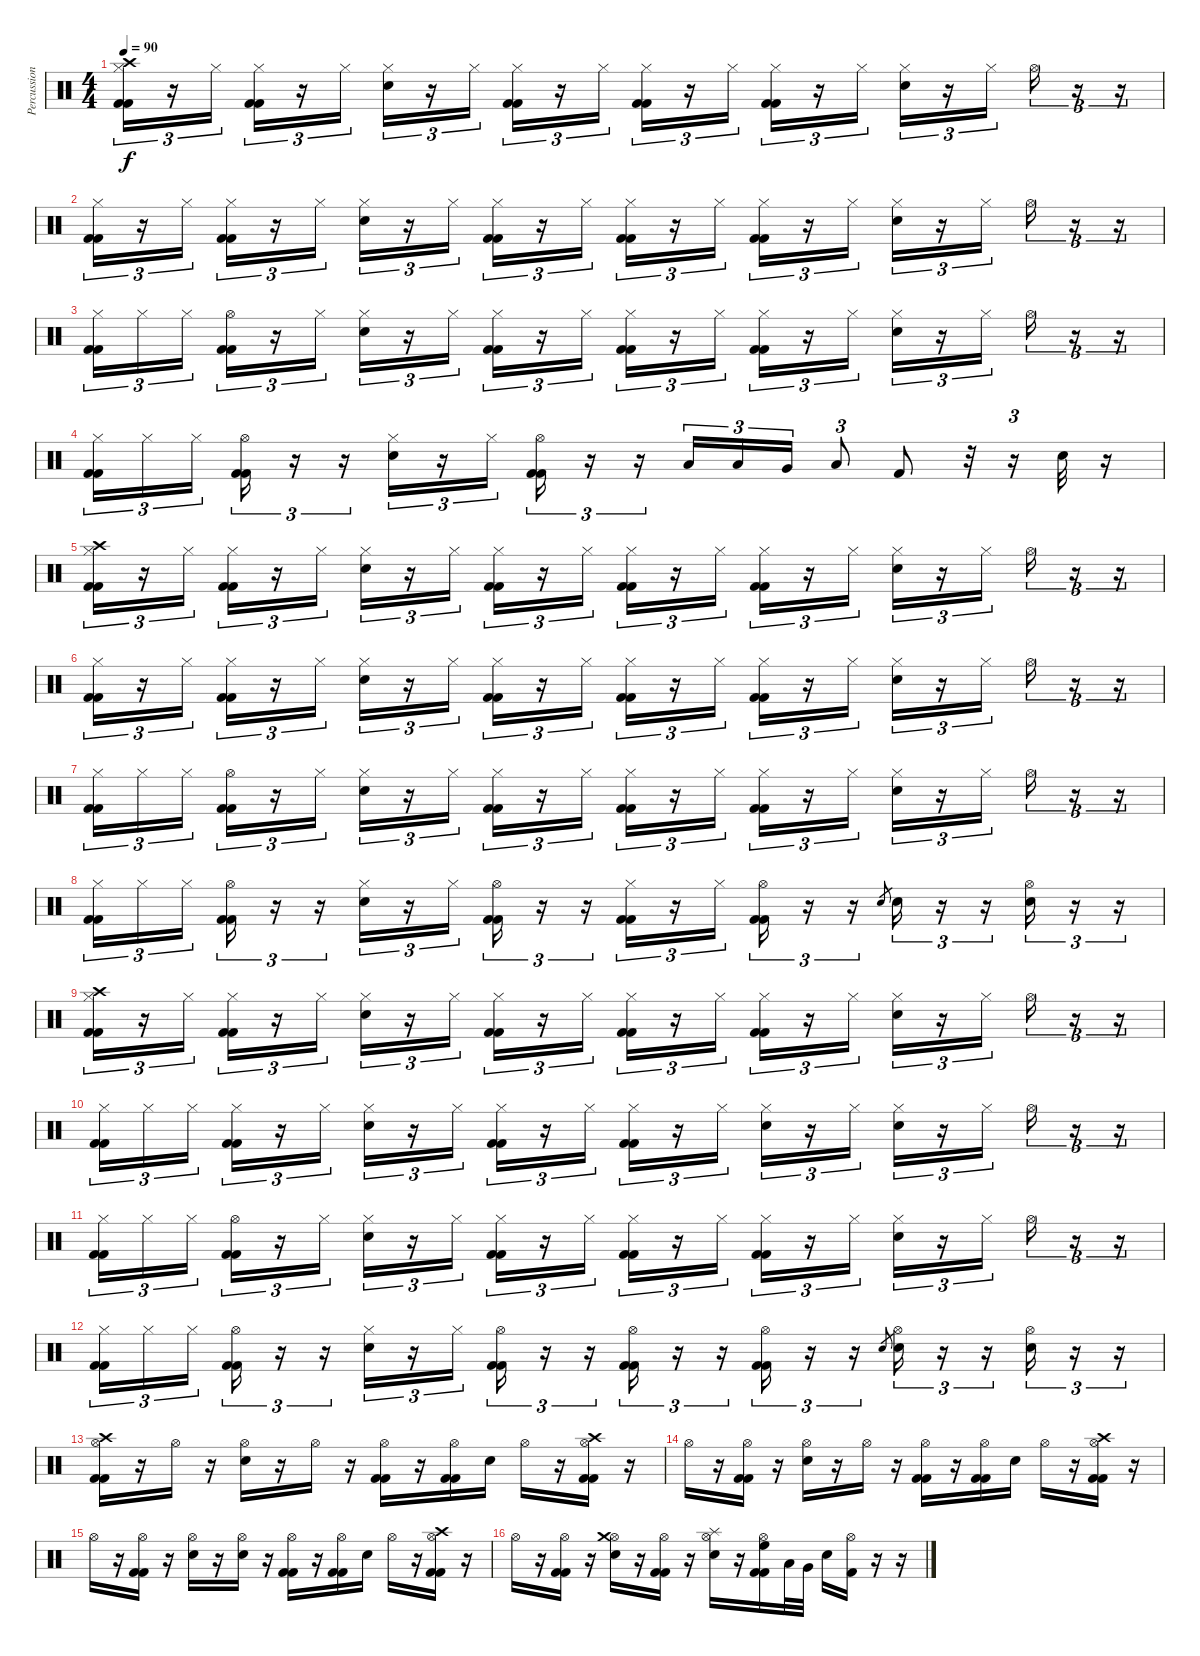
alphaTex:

\track ("Percussion" "Percussion") {instrument percussion}
\staff {score}
\articulation defaults
\ts (4 4)
\tempo 90
\clef neutral
\ks c
("Hi-Hat (closed)" "Crash high (hit)" "Kick (hit) 2" "Kick (hit) 2").16{tu (3 2) dy f} r.16{tu (3 2)} "Hi-Hat (closed)".16{tu (3 2)} ("Hi-Hat (closed)" "Kick (hit) 2" "Kick (hit) 2").16{tu (3 2)} r.16{tu (3 2)} "Hi-Hat (closed)".16{tu (3 2)} ("Hi-Hat (closed)" "Electric Snare (hit)").16{tu (3 2)} r.16{tu (3 2)} "Hi-Hat (closed)".16{tu (3 2)} ("Hi-Hat (closed)" "Kick (hit) 2" "Kick (hit) 2").16{tu (3 2)} r.16{tu (3 2)} "Hi-Hat (closed)".16{tu (3 2)} ("Hi-Hat (closed)" "Kick (hit) 2" "Kick (hit) 2").16{tu (3 2)} r.16{tu (3 2)} "Hi-Hat (closed)".16{tu (3 2)} ("Hi-Hat (closed)" "Kick (hit) 2" "Kick (hit) 2").16{tu (3 2)} r.16{tu (3 2)} "Hi-Hat (closed)".16{tu (3 2)} ("Hi-Hat (closed)" "Electric Snare (hit)").16{tu (3 2)} r.16{tu (3 2)} "Hi-Hat (closed)".16{tu (3 2)} "Hi-Hat (open)".16{tu (3 2)} r.16{tu (3 2)} r.16{tu (3 2)} |
("Hi-Hat (closed)" "Kick (hit) 2" "Kick (hit) 2").16{tu (3 2)} r.16{tu (3 2)} "Hi-Hat (closed)".16{tu (3 2)} ("Hi-Hat (closed)" "Kick (hit) 2" "Kick (hit) 2").16{tu (3 2)} r.16{tu (3 2)} "Hi-Hat (closed)".16{tu (3 2)} ("Hi-Hat (closed)" "Electric Snare (hit)").16{tu (3 2)} r.16{tu (3 2)} "Hi-Hat (closed)".16{tu (3 2)} ("Hi-Hat (closed)" "Kick (hit) 2" "Kick (hit) 2").16{tu (3 2)} r.16{tu (3 2)} "Hi-Hat (closed)".16{tu (3 2)} ("Hi-Hat (closed)" "Kick (hit) 2" "Kick (hit) 2").16{tu (3 2)} r.16{tu (3 2)} "Hi-Hat (closed)".16{tu (3 2)} ("Hi-Hat (closed)" "Kick (hit) 2" "Kick (hit) 2").16{tu (3 2)} r.16{tu (3 2)} "Hi-Hat (closed)".16{tu (3 2)} ("Hi-Hat (closed)" "Electric Snare (hit)").16{tu (3 2)} r.16{tu (3 2)} "Hi-Hat (closed)".16{tu (3 2)} "Hi-Hat (open)".16{tu (3 2)} r.16{tu (3 2)} r.16{tu (3 2)} |
("Hi-Hat (closed)" "Kick (hit) 2" "Kick (hit) 2").16{tu (3 2)} "Hi-Hat (closed)".16{tu (3 2)} "Hi-Hat (closed)".16{tu (3 2)} ("Hi-Hat (open)" "Kick (hit) 2" "Kick (hit) 2").16{tu (3 2)} r.16{tu (3 2)} "Hi-Hat (closed)".16{tu (3 2)} ("Hi-Hat (closed)" "Electric Snare (hit)").16{tu (3 2)} r.16{tu (3 2)} "Hi-Hat (closed)".16{tu (3 2)} ("Hi-Hat (closed)" "Kick (hit) 2" "Kick (hit) 2").16{tu (3 2)} r.16{tu (3 2)} "Hi-Hat (closed)".16{tu (3 2)} ("Hi-Hat (closed)" "Kick (hit) 2" "Kick (hit) 2").16{tu (3 2)} r.16{tu (3 2)} "Hi-Hat (closed)".16{tu (3 2)} ("Hi-Hat (closed)" "Kick (hit) 2" "Kick (hit) 2").16{tu (3 2)} r.16{tu (3 2)} "Hi-Hat (closed)".16{tu (3 2)} ("Hi-Hat (closed)" "Electric Snare (hit)").16{tu (3 2)} r.16{tu (3 2)} "Hi-Hat (closed)".16{tu (3 2)} "Hi-Hat (open)".16{tu (3 2)} r.16{tu (3 2)} r.16{tu (3 2)} |
("Hi-Hat (closed)" "Kick (hit) 2" "Kick (hit) 2").16{tu (3 2)} "Hi-Hat (closed)".16{tu (3 2)} "Hi-Hat (closed)".16{tu (3 2)} ("Hi-Hat (open)" "Kick (hit) 2" "Kick (hit) 2").16{tu (3 2)} r.16{tu (3 2)} r.16{tu (3 2)} ("Hi-Hat (closed)" "Electric Snare (hit)").16{tu (3 2)} r.16{tu (3 2)} "Hi-Hat (closed)".16{tu (3 2)} ("Hi-Hat (open)" "Kick (hit) 2" "Kick (hit) 2").16{tu (3 2)} r.16{tu (3 2)} r.16{tu (3 2)} "Low Tom (hit)".16{tu (3 2)} "Low Tom (hit)".16{tu (3 2)} "Very Low Tom (hit)".16{tu (3 2)} "Low Floor Tom (hit)".8{tu (3 2)} "Kick (hit) 2".8 r.32 r.16{tu (3 2)} "Electric Snare (hit)".32 r.16 |
("Hi-Hat (closed)" "Crash high (hit)" "Kick (hit) 2" "Kick (hit) 2").16{tu (3 2)} r.16{tu (3 2)} "Hi-Hat (closed)".16{tu (3 2)} ("Hi-Hat (closed)" "Kick (hit) 2" "Kick (hit) 2").16{tu (3 2)} r.16{tu (3 2)} "Hi-Hat (closed)".16{tu (3 2)} ("Hi-Hat (closed)" "Electric Snare (hit)").16{tu (3 2)} r.16{tu (3 2)} "Hi-Hat (closed)".16{tu (3 2)} ("Hi-Hat (closed)" "Kick (hit) 2" "Kick (hit) 2").16{tu (3 2)} r.16{tu (3 2)} "Hi-Hat (closed)".16{tu (3 2)} ("Hi-Hat (closed)" "Kick (hit) 2" "Kick (hit) 2").16{tu (3 2)} r.16{tu (3 2)} "Hi-Hat (closed)".16{tu (3 2)} ("Hi-Hat (closed)" "Kick (hit) 2" "Kick (hit) 2").16{tu (3 2)} r.16{tu (3 2)} "Hi-Hat (closed)".16{tu (3 2)} ("Hi-Hat (closed)" "Electric Snare (hit)").16{tu (3 2)} r.16{tu (3 2)} "Hi-Hat (closed)".16{tu (3 2)} "Hi-Hat (open)".16{tu (3 2)} r.16{tu (3 2)} r.16{tu (3 2)} |
("Hi-Hat (closed)" "Kick (hit) 2" "Kick (hit) 2").16{tu (3 2)} r.16{tu (3 2)} "Hi-Hat (closed)".16{tu (3 2)} ("Hi-Hat (closed)" "Kick (hit) 2" "Kick (hit) 2").16{tu (3 2)} r.16{tu (3 2)} "Hi-Hat (closed)".16{tu (3 2)} ("Hi-Hat (closed)" "Electric Snare (hit)").16{tu (3 2)} r.16{tu (3 2)} "Hi-Hat (closed)".16{tu (3 2)} ("Hi-Hat (closed)" "Kick (hit) 2" "Kick (hit) 2").16{tu (3 2)} r.16{tu (3 2)} "Hi-Hat (closed)".16{tu (3 2)} ("Hi-Hat (closed)" "Kick (hit) 2" "Kick (hit) 2").16{tu (3 2)} r.16{tu (3 2)} "Hi-Hat (closed)".16{tu (3 2)} ("Hi-Hat (closed)" "Kick (hit) 2" "Kick (hit) 2").16{tu (3 2)} r.16{tu (3 2)} "Hi-Hat (closed)".16{tu (3 2)} ("Hi-Hat (closed)" "Electric Snare (hit)").16{tu (3 2)} r.16{tu (3 2)} "Hi-Hat (closed)".16{tu (3 2)} "Hi-Hat (open)".16{tu (3 2)} r.16{tu (3 2)} r.16{tu (3 2)} |
("Hi-Hat (closed)" "Kick (hit) 2" "Kick (hit) 2").16{tu (3 2)} "Hi-Hat (closed)".16{tu (3 2)} "Hi-Hat (closed)".16{tu (3 2)} ("Hi-Hat (open)" "Kick (hit) 2" "Kick (hit) 2").16{tu (3 2)} r.16{tu (3 2)} "Hi-Hat (closed)".16{tu (3 2)} ("Hi-Hat (closed)" "Electric Snare (hit)").16{tu (3 2)} r.16{tu (3 2)} "Hi-Hat (closed)".16{tu (3 2)} ("Hi-Hat (closed)" "Kick (hit) 2" "Kick (hit) 2").16{tu (3 2)} r.16{tu (3 2)} "Hi-Hat (closed)".16{tu (3 2)} ("Hi-Hat (closed)" "Kick (hit) 2" "Kick (hit) 2").16{tu (3 2)} r.16{tu (3 2)} "Hi-Hat (closed)".16{tu (3 2)} ("Hi-Hat (closed)" "Kick (hit) 2" "Kick (hit) 2").16{tu (3 2)} r.16{tu (3 2)} "Hi-Hat (closed)".16{tu (3 2)} ("Hi-Hat (closed)" "Electric Snare (hit)").16{tu (3 2)} r.16{tu (3 2)} "Hi-Hat (closed)".16{tu (3 2)} "Hi-Hat (open)".16{tu (3 2)} r.16{tu (3 2)} r.16{tu (3 2)} |
("Hi-Hat (closed)" "Kick (hit) 2" "Kick (hit) 2").16{tu (3 2)} "Hi-Hat (closed)".16{tu (3 2)} "Hi-Hat (closed)".16{tu (3 2)} ("Hi-Hat (open)" "Kick (hit) 2" "Kick (hit) 2").16{tu (3 2)} r.16{tu (3 2)} r.16{tu (3 2)} ("Hi-Hat (closed)" "Electric Snare (hit)").16{tu (3 2)} r.16{tu (3 2)} "Hi-Hat (closed)".16{tu (3 2)} ("Hi-Hat (open)" "Kick (hit) 2" "Kick (hit) 2").16{tu (3 2)} r.16{tu (3 2)} r.16{tu (3 2)} ("Hi-Hat (closed)" "Kick (hit) 2" "Kick (hit) 2").16{tu (3 2)} r.16{tu (3 2)} "Hi-Hat (closed)".16{tu (3 2)} ("Hi-Hat (open)" "Kick (hit) 2" "Kick (hit) 2").16{tu (3 2)} r.16{tu (3 2)} r.16{tu (3 2)} "Electric Snare (hit)".8{gr} "Electric Snare (hit)".16{tu (3 2)} r.16{tu (3 2)} r.16{tu (3 2)} ("Hi-Hat (open)" "Electric Snare (hit)").16{tu (3 2)} r.16{tu (3 2)} r.16{tu (3 2)} |
("Hi-Hat (closed)" "Crash high (hit)" "Kick (hit) 2" "Kick (hit) 2").16{tu (3 2)} r.16{tu (3 2)} "Hi-Hat (closed)".16{tu (3 2)} ("Hi-Hat (closed)" "Kick (hit) 2" "Kick (hit) 2").16{tu (3 2)} r.16{tu (3 2)} "Hi-Hat (closed)".16{tu (3 2)} ("Hi-Hat (closed)" "Electric Snare (hit)").16{tu (3 2)} r.16{tu (3 2)} "Hi-Hat (closed)".16{tu (3 2)} ("Hi-Hat (closed)" "Kick (hit) 2" "Kick (hit) 2").16{tu (3 2)} r.16{tu (3 2)} "Hi-Hat (closed)".16{tu (3 2)} ("Hi-Hat (closed)" "Kick (hit) 2" "Kick (hit) 2").16{tu (3 2)} r.16{tu (3 2)} "Hi-Hat (closed)".16{tu (3 2)} ("Hi-Hat (closed)" "Kick (hit) 2" "Kick (hit) 2").16{tu (3 2)} r.16{tu (3 2)} "Hi-Hat (closed)".16{tu (3 2)} ("Hi-Hat (closed)" "Electric Snare (hit)").16{tu (3 2)} r.16{tu (3 2)} "Hi-Hat (closed)".16{tu (3 2)} "Hi-Hat (open)".16{tu (3 2)} r.16{tu (3 2)} r.16{tu (3 2)} |
("Hi-Hat (closed)" "Kick (hit) 2" "Kick (hit) 2").16{tu (3 2)} "Hi-Hat (closed)".16{tu (3 2)} "Hi-Hat (closed)".16{tu (3 2)} ("Hi-Hat (closed)" "Kick (hit) 2" "Kick (hit) 2").16{tu (3 2)} r.16{tu (3 2)} "Hi-Hat (closed)".16{tu (3 2)} ("Hi-Hat (closed)" "Electric Snare (hit)").16{tu (3 2)} r.16{tu (3 2)} "Hi-Hat (closed)".16{tu (3 2)} ("Hi-Hat (closed)" "Kick (hit) 2" "Kick (hit) 2").16{tu (3 2)} r.16{tu (3 2)} "Hi-Hat (closed)".16{tu (3 2)} ("Hi-Hat (closed)" "Kick (hit) 2" "Kick (hit) 2").16{tu (3 2)} r.16{tu (3 2)} "Hi-Hat (closed)".16{tu (3 2)} ("Hi-Hat (closed)" "Electric Snare (hit)").16{tu (3 2)} r.16{tu (3 2)} "Hi-Hat (closed)".16{tu (3 2)} ("Hi-Hat (closed)" "Electric Snare (hit)").16{tu (3 2)} r.16{tu (3 2)} "Hi-Hat (closed)".16{tu (3 2)} "Hi-Hat (open)".16{tu (3 2)} r.16{tu (3 2)} r.16{tu (3 2)} |
("Hi-Hat (closed)" "Kick (hit) 2" "Kick (hit) 2").16{tu (3 2)} "Hi-Hat (closed)".16{tu (3 2)} "Hi-Hat (closed)".16{tu (3 2)} ("Hi-Hat (open)" "Kick (hit) 2" "Kick (hit) 2").16{tu (3 2)} r.16{tu (3 2)} "Hi-Hat (closed)".16{tu (3 2)} ("Hi-Hat (closed)" "Electric Snare (hit)").16{tu (3 2)} r.16{tu (3 2)} "Hi-Hat (closed)".16{tu (3 2)} ("Hi-Hat (closed)" "Kick (hit) 2" "Kick (hit) 2").16{tu (3 2)} r.16{tu (3 2)} "Hi-Hat (closed)".16{tu (3 2)} ("Hi-Hat (closed)" "Kick (hit) 2" "Kick (hit) 2").16{tu (3 2)} r.16{tu (3 2)} "Hi-Hat (closed)".16{tu (3 2)} ("Hi-Hat (closed)" "Kick (hit) 2" "Kick (hit) 2").16{tu (3 2)} r.16{tu (3 2)} "Hi-Hat (closed)".16{tu (3 2)} ("Hi-Hat (closed)" "Electric Snare (hit)").16{tu (3 2)} r.16{tu (3 2)} "Hi-Hat (closed)".16{tu (3 2)} "Hi-Hat (open)".16{tu (3 2)} r.16{tu (3 2)} r.16{tu (3 2)} |
("Hi-Hat (closed)" "Kick (hit) 2" "Kick (hit) 2").16{tu (3 2)} "Hi-Hat (closed)".16{tu (3 2)} "Hi-Hat (closed)".16{tu (3 2)} ("Hi-Hat (open)" "Kick (hit) 2" "Kick (hit) 2").16{tu (3 2)} r.16{tu (3 2)} r.16{tu (3 2)} ("Hi-Hat (closed)" "Electric Snare (hit)").16{tu (3 2)} r.16{tu (3 2)} "Hi-Hat (closed)".16{tu (3 2)} ("Hi-Hat (open)" "Kick (hit) 2" "Kick (hit) 2").16{tu (3 2)} r.16{tu (3 2)} r.16{tu (3 2)} ("Hi-Hat (open)" "Kick (hit) 2" "Kick (hit) 2").16{tu (3 2)} r.16{tu (3 2)} r.16{tu (3 2)} ("Hi-Hat (open)" "Kick (hit) 2" "Kick (hit) 2").16{tu (3 2)} r.16{tu (3 2)} r.16{tu (3 2)} "Electric Snare (hit)".8{gr} ("Hi-Hat (open)" "Electric Snare (hit)").16{tu (3 2)} r.16{tu (3 2)} r.16{tu (3 2)} ("Hi-Hat (open)" "Electric Snare (hit)").16{tu (3 2)} r.16{tu (3 2)} r.16{tu (3 2)} |
("Hi-Hat (open)" "Crash high (hit)" "Kick (hit) 2" "Kick (hit) 2").16 r.16 "Hi-Hat (open)".16 r.16 ("Hi-Hat (open)" "Electric Snare (hit)").16 r.16 "Hi-Hat (open)".16 r.16 ("Hi-Hat (open)" "Kick (hit) 2" "Kick (hit) 2").16 r.16 ("Hi-Hat (open)" "Kick (hit) 2" "Kick (hit) 2").16 "Electric Snare (hit)".16 "Hi-Hat (open)".16 r.16 ("Hi-Hat (open)" "Crash high (hit)" "Kick (hit) 2" "Kick (hit) 2").16 r.16 |
"Hi-Hat (open)".16 r.16 ("Hi-Hat (open)" "Kick (hit) 2" "Kick (hit) 2").16 r.16 ("Hi-Hat (open)" "Electric Snare (hit)").16 r.16 "Hi-Hat (open)".16 r.16 ("Hi-Hat (open)" "Kick (hit) 2" "Kick (hit) 2").16 r.16 ("Hi-Hat (open)" "Kick (hit) 2" "Kick (hit) 2").16 "Electric Snare (hit)".16 "Hi-Hat (open)".16 r.16 ("Hi-Hat (open)" "Crash high (hit)" "Kick (hit) 2" "Kick (hit) 2").16 r.16 |
"Hi-Hat (open)".16 r.16 ("Hi-Hat (open)" "Kick (hit) 2" "Kick (hit) 2").16 r.16 ("Hi-Hat (open)" "Electric Snare (hit)").16 r.16 ("Hi-Hat (open)" "Electric Snare (hit)").16 r.16 ("Hi-Hat (open)" "Kick (hit) 2" "Kick (hit) 2").16 r.16 ("Hi-Hat (open)" "Kick (hit) 2" "Kick (hit) 2").16 "Electric Snare (hit)".16 "Hi-Hat (open)".16 r.16 ("Hi-Hat (open)" "Crash high (hit)" "Kick (hit) 2" "Kick (hit) 2").16 r.16 |
"Hi-Hat (open)".16 r.16 ("Hi-Hat (open)" "Kick (hit) 2" "Kick (hit) 2").16 r.16 ("Hi-Hat (open)" "Crash medium (hit)" "Electric Snare (hit)").16 r.16 ("Hi-Hat (open)" "Kick (hit) 2" "Kick (hit) 2").16 r.16 ("Hi-Hat (open)" "Splash (hit)" "Electric Snare (hit)").16 r.16 ("Hi-Hat (open)" "High Floor Tom (hit)" "Kick (hit) 2" "Kick (hit) 2").16 "Low Tom (hit)".32 "Very Low Tom (hit)".32 "Electric Snare (hit)".16 ("Hi-Hat (open)" "Kick (hit) 2").16 r.16 r.16
